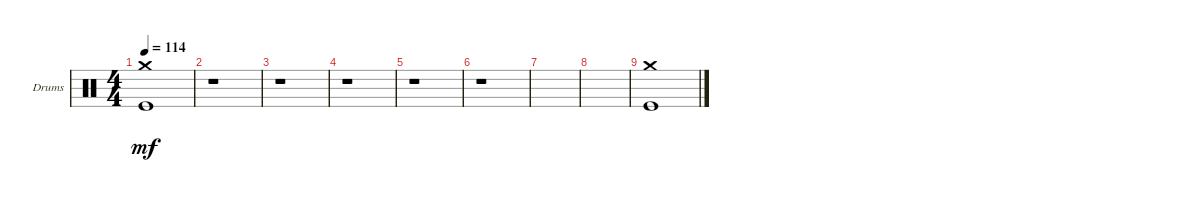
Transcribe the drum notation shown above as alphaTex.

\defaultSystemsLayout 4
\bracketExtendMode groupsimilarinstruments
\firstSystemTrackNameOrientation horizontal
\otherSystemsTrackNameOrientation horizontal
\track ("Drums Inferno" "Drums") {instrument percussion}
\staff {score}
\articulation defaults
\ts (4 4)
\tempo 114
\clef neutral
\scale
0.333333
\ks c
("Kick (hit)" "Crash medium (hit)").1{dy mf} |
\scale
0.333333 r.1 |
\scale
0.333333 r.1 |
\scale
0.333333 r.1 |
\scale
0.333333 r.1 |
\scale
0.333333 r.1 |
\scale
0.333333 |
\scale
0.333333 |
("Crash medium (hit)" "Kick (hit)").1
